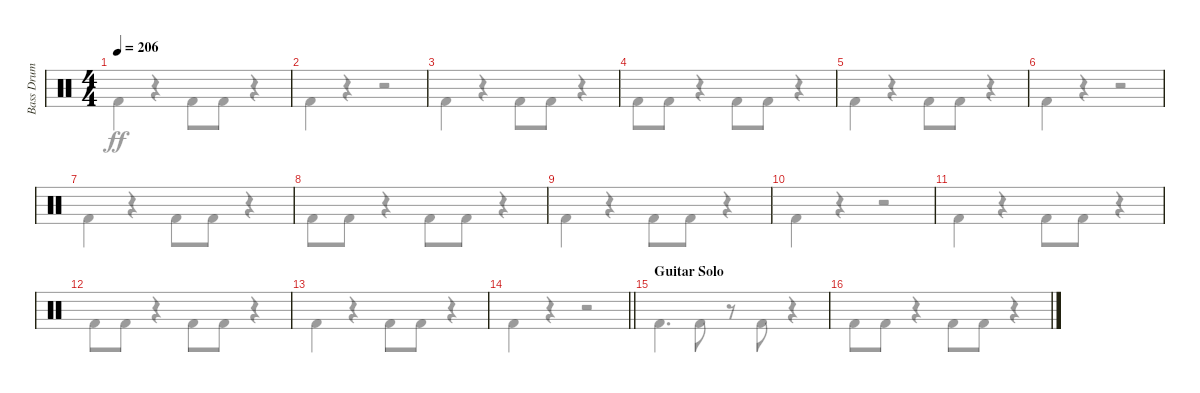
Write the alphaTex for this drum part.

\track ("Bass Drum" "Bass Drum") {instrument percussion}
\staff {score}
\articulation defaults
\voice
\ts (4 4)
\tempo 206
\clef neutral
\ks c
|
|
|
|
|
|
|
|
|
|
|
|
|
\barLineRight lightlight
|
\section ("" "Guitar Solo")
|
\voice
\clef neutral
\ks c "Kick (hit) 2".4{dy ff}
r.4 "Kick (hit) 2".8 "Kick (hit) 2".8 r.4 |
"Kick (hit) 2".4 r.4 r.2 |
"Kick (hit) 2".4 r.4 "Kick (hit) 2".8 "Kick (hit) 2".8 r.4 |
"Kick (hit) 2".8 "Kick (hit) 2".8 r.4 "Kick (hit) 2".8 "Kick (hit) 2".8 r.4 |
"Kick (hit) 2".4 r.4 "Kick (hit) 2".8 "Kick (hit) 2".8 r.4 |
"Kick (hit) 2".4 r.4 r.2 |
"Kick (hit) 2".4 r.4 "Kick (hit) 2".8 "Kick (hit) 2".8 r.4 |
"Kick (hit) 2".8 "Kick (hit) 2".8 r.4 "Kick (hit) 2".8 "Kick (hit) 2".8 r.4 |
"Kick (hit) 2".4 r.4 "Kick (hit) 2".8 "Kick (hit) 2".8 r.4 |
"Kick (hit) 2".4 r.4 r.2 |
"Kick (hit) 2".4 r.4 "Kick (hit) 2".8 "Kick (hit) 2".8 r.4 |
"Kick (hit) 2".8 "Kick (hit) 2".8 r.4 "Kick (hit) 2".8 "Kick (hit) 2".8 r.4 |
"Kick (hit) 2".4 r.4 "Kick (hit) 2".8 "Kick (hit) 2".8 r.4 |
\barLineRight lightlight "Kick (hit) 2".4
r.4 r.2 |
"Kick (hit) 2".4{d} "Kick (hit) 2".8 r.8 "Kick (hit) 2".8 r.4 |
"Kick (hit) 2".8 "Kick (hit) 2".8 r.4 "Kick (hit) 2".8 "Kick (hit) 2".8 r.4
